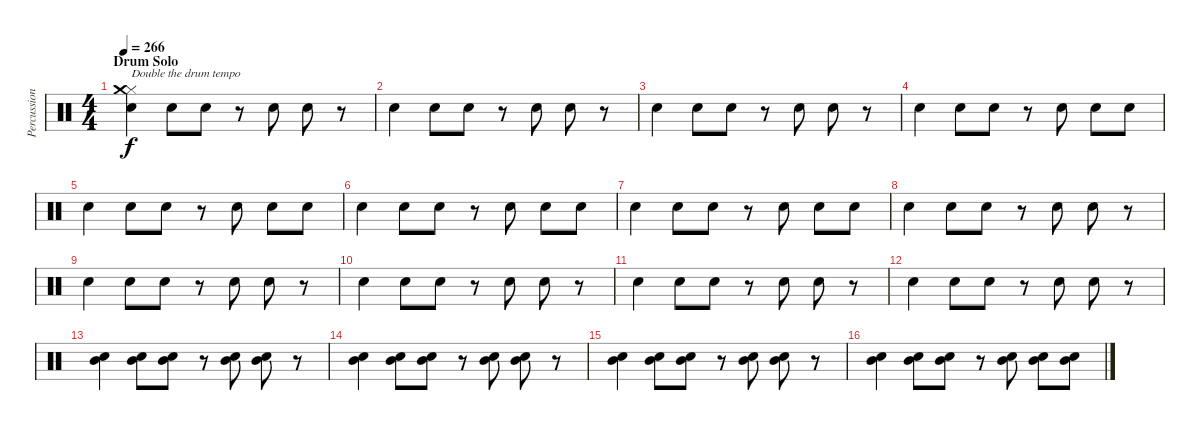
\track ("Percussion" "Percussion") {instrument percussion}
\staff {score}
\articulation defaults
\ts (4 4)
\section ("" "Drum Solo")
\tempo 266
\clef neutral
\ks c
("Snare (hit) 2" "Hi-Hat (closed)" "Crash medium (hit)").4{txt "Double the drum tempo" dy f} "Snare (hit) 2".8 "Snare (hit) 2".8 r.8 "Snare (hit) 2".8 "Snare (hit) 2".8 r.8 |
"Snare (hit) 2".4 "Snare (hit) 2".8 "Snare (hit) 2".8 r.8 "Snare (hit) 2".8 "Snare (hit) 2".8 r.8 |
"Snare (hit) 2".4 "Snare (hit) 2".8 "Snare (hit) 2".8 r.8 "Snare (hit) 2".8 "Snare (hit) 2".8 r.8 |
"Snare (hit) 2".4 "Snare (hit) 2".8 "Snare (hit) 2".8 r.8 "Snare (hit) 2".8 "Snare (hit) 2".8 "Snare (hit) 2".8 |
"Snare (hit) 2".4 "Snare (hit) 2".8 "Snare (hit) 2".8 r.8 "Snare (hit) 2".8 "Snare (hit) 2".8 "Snare (hit) 2".8 |
"Snare (hit) 2".4 "Snare (hit) 2".8 "Snare (hit) 2".8 r.8 "Snare (hit) 2".8 "Snare (hit) 2".8 "Snare (hit) 2".8 |
"Snare (hit) 2".4 "Snare (hit) 2".8 "Snare (hit) 2".8 r.8 "Snare (hit) 2".8 "Snare (hit) 2".8 "Snare (hit) 2".8 |
"Snare (hit) 2".4 "Snare (hit) 2".8 "Snare (hit) 2".8 r.8 "Snare (hit) 2".8 "Snare (hit) 2".8 r.8 |
"Snare (hit) 2".4 "Snare (hit) 2".8 "Snare (hit) 2".8 r.8 "Snare (hit) 2".8 "Snare (hit) 2".8 r.8 |
"Snare (hit) 2".4 "Snare (hit) 2".8 "Snare (hit) 2".8 r.8 "Snare (hit) 2".8 "Snare (hit) 2".8 r.8 |
"Snare (hit) 2".4 "Snare (hit) 2".8 "Snare (hit) 2".8 r.8 "Snare (hit) 2".8 "Snare (hit) 2".8 r.8 |
"Snare (hit) 2".4 "Snare (hit) 2".8 "Snare (hit) 2".8 r.8 "Snare (hit) 2".8 "Snare (hit) 2".8 r.8 |
("Mid Tom (hit)" "Snare (hit) 2").4 ("Mid Tom (hit)" "Snare (hit) 2").8 ("Mid Tom (hit)" "Snare (hit) 2").8 r.8 ("Mid Tom (hit)" "Snare (hit) 2").8 ("Mid Tom (hit)" "Snare (hit) 2").8 r.8 |
("Mid Tom (hit)" "Snare (hit) 2").4 ("Mid Tom (hit)" "Snare (hit) 2").8 ("Mid Tom (hit)" "Snare (hit) 2").8 r.8 ("Mid Tom (hit)" "Snare (hit) 2").8 ("Mid Tom (hit)" "Snare (hit) 2").8 r.8 |
("Mid Tom (hit)" "Snare (hit) 2").4 ("Mid Tom (hit)" "Snare (hit) 2").8 ("Mid Tom (hit)" "Snare (hit) 2").8 r.8 ("Mid Tom (hit)" "Snare (hit) 2").8 ("Mid Tom (hit)" "Snare (hit) 2").8 r.8 |
("Mid Tom (hit)" "Snare (hit) 2").4 ("Mid Tom (hit)" "Snare (hit) 2").8 ("Mid Tom (hit)" "Snare (hit) 2").8 r.8 ("Mid Tom (hit)" "Snare (hit) 2").8 ("Mid Tom (hit)" "Snare (hit) 2").8 ("Mid Tom (hit)" "Snare (hit) 2").8
